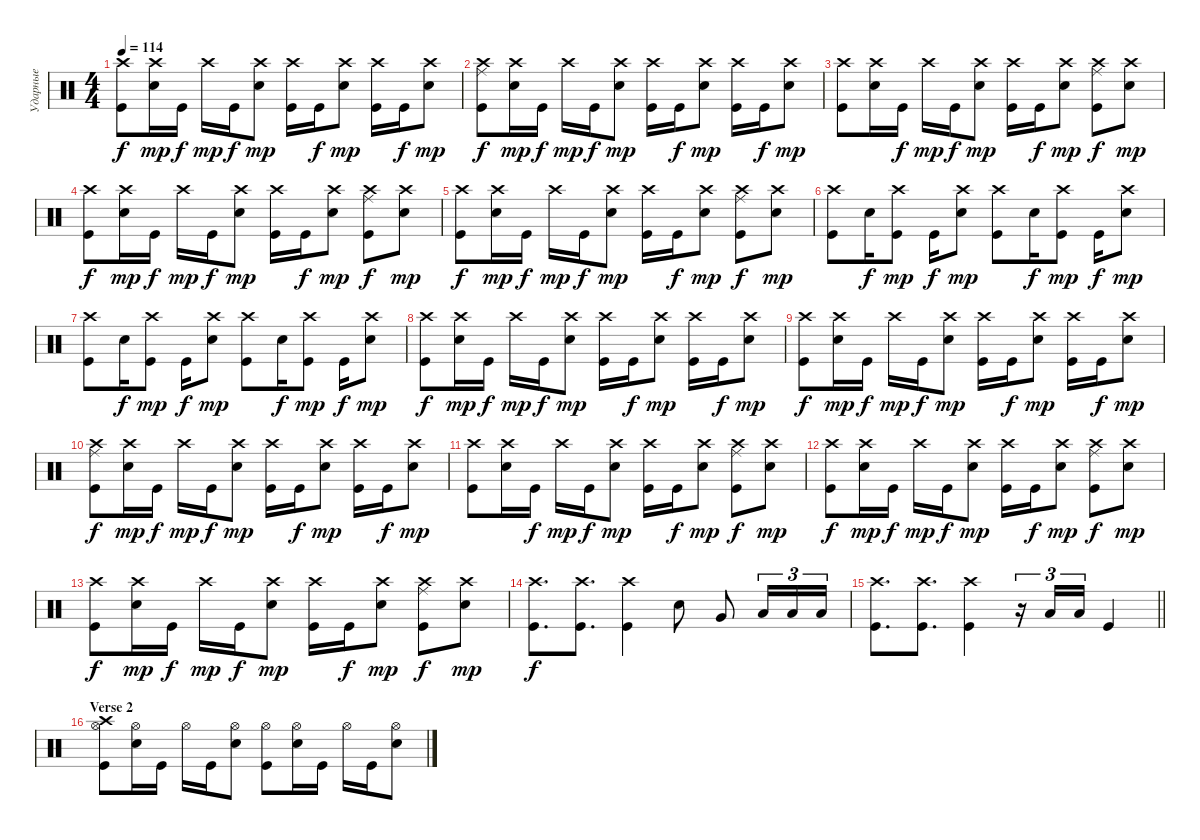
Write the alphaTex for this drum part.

\track ("Ударные" "Ударные") {instrument percussion}
\staff {score}
\articulation defaults
\ts (4 4)
\tempo 114
\clef neutral
\ks aminor
("Crash high (hit)" "Kick (hit)").8{dy f} ("Crash high (hit)" "Snare (hit) 2").16{dy mp} "Kick (hit)".16{dy f} "Crash high (hit)".16{dy mp} "Kick (hit)".16{dy f} ("Crash high (hit)" "Snare (hit) 2").8{dy mp} ("Kick (hit)" "Crash high (hit)").16 "Kick (hit)".16{dy f} ("Crash high (hit)" "Snare (hit) 2").8{dy mp} ("Crash high (hit)" "Kick (hit)").16 "Kick (hit)".16{dy f} ("Crash high (hit)" "Snare (hit) 2").8{dy mp} |
("Crash high (hit)" "Ride (middle)" "Kick (hit)").8{dy f} ("Crash high (hit)" "Snare (hit) 2").16{dy mp} "Kick (hit)".16{dy f} "Crash high (hit)".16{dy mp} "Kick (hit)".16{dy f} ("Crash high (hit)" "Snare (hit) 2").8{dy mp} ("Kick (hit)" "Crash high (hit)").16 "Kick (hit)".16{dy f} ("Crash high (hit)" "Snare (hit) 2").8{dy mp} ("Kick (hit)" "Crash high (hit)").16 "Kick (hit)".16{dy f} ("Crash high (hit)" "Snare (hit) 2").8{dy mp} |
("Crash high (hit)" "Kick (hit)").8 ("Crash high (hit)" "Snare (hit) 2").16 "Kick (hit)".16{dy f} "Crash high (hit)".16{dy mp} "Kick (hit)".16{dy f} ("Crash high (hit)" "Snare (hit) 2").8{dy mp} ("Kick (hit)" "Crash high (hit)").16 "Kick (hit)".16{dy f} ("Crash high (hit)" "Snare (hit) 2").8{dy mp} ("Ride (middle)" "Crash high (hit)" "Kick (hit)").8{dy f} ("Crash high (hit)" "Snare (hit) 2").8{dy mp} |
("Crash high (hit)" "Kick (hit)").8{dy f} ("Crash high (hit)" "Snare (hit) 2").16{dy mp} "Kick (hit)".16{dy f} "Crash high (hit)".16{dy mp} "Kick (hit)".16{dy f} ("Crash high (hit)" "Snare (hit) 2").8{dy mp} ("Kick (hit)" "Crash high (hit)").16 "Kick (hit)".16{dy f} ("Crash high (hit)" "Snare (hit) 2").8{dy mp} ("Ride (middle)" "Crash high (hit)" "Kick (hit)").8{dy f} ("Crash high (hit)" "Snare (hit) 2").8{dy mp} |
("Crash high (hit)" "Kick (hit)").8{dy f} ("Crash high (hit)" "Snare (hit) 2").16{dy mp} "Kick (hit)".16{dy f} "Crash high (hit)".16{dy mp} "Kick (hit)".16{dy f} ("Crash high (hit)" "Snare (hit) 2").8{dy mp} ("Kick (hit)" "Crash high (hit)").16 "Kick (hit)".16{dy f} ("Crash high (hit)" "Snare (hit) 2").8{dy mp} ("Ride (middle)" "Crash high (hit)" "Kick (hit)").8{dy f} ("Crash high (hit)" "Snare (hit) 2").8{dy mp} |
("Crash high (hit)" "Kick (hit)").8 "Snare (hit) 2".16{dy f} ("Crash high (hit)" "Kick (hit)").8{dy mp} "Kick (hit)".16{dy f} ("Crash high (hit)" "Snare (hit) 2").8{dy mp} ("Crash high (hit)" "Kick (hit)").8 "Snare (hit) 2".16{dy f} ("Crash high (hit)" "Kick (hit)").8{dy mp} "Kick (hit)".16{dy f} ("Crash high (hit)" "Snare (hit) 2").8{dy mp} |
("Crash high (hit)" "Kick (hit)").8 "Snare (hit) 2".16{dy f} ("Crash high (hit)" "Kick (hit)").8{dy mp} "Kick (hit)".16{dy f} ("Crash high (hit)" "Snare (hit) 2").8{dy mp} ("Crash high (hit)" "Kick (hit)").8 "Snare (hit) 2".16{dy f} ("Crash high (hit)" "Kick (hit)").8{dy mp} "Kick (hit)".16{dy f} ("Crash high (hit)" "Snare (hit) 2").8{dy mp} |
("Crash high (hit)" "Kick (hit)").8{dy f} ("Crash high (hit)" "Snare (hit) 2").16{dy mp} "Kick (hit)".16{dy f} "Crash high (hit)".16{dy mp} "Kick (hit)".16{dy f} ("Crash high (hit)" "Snare (hit) 2").8{dy mp} ("Kick (hit)" "Crash high (hit)").16 "Kick (hit)".16{dy f} ("Crash high (hit)" "Snare (hit) 2").8{dy mp} ("Kick (hit)" "Crash high (hit)").16 "Kick (hit)".16{dy f} ("Crash high (hit)" "Snare (hit) 2").8{dy mp} |
("Crash high (hit)" "Kick (hit)").8{dy f} ("Crash high (hit)" "Snare (hit) 2").16{dy mp} "Kick (hit)".16{dy f} "Crash high (hit)".16{dy mp} "Kick (hit)".16{dy f} ("Crash high (hit)" "Snare (hit) 2").8{dy mp} ("Kick (hit)" "Crash high (hit)").16 "Kick (hit)".16{dy f} ("Crash high (hit)" "Snare (hit) 2").8{dy mp} ("Crash high (hit)" "Kick (hit)").16 "Kick (hit)".16{dy f} ("Crash high (hit)" "Snare (hit) 2").8{dy mp} |
("Crash high (hit)" "Ride (middle)" "Kick (hit)").8{dy f} ("Crash high (hit)" "Snare (hit) 2").16{dy mp} "Kick (hit)".16{dy f} "Crash high (hit)".16{dy mp} "Kick (hit)".16{dy f} ("Crash high (hit)" "Snare (hit) 2").8{dy mp} ("Kick (hit)" "Crash high (hit)").16 "Kick (hit)".16{dy f} ("Crash high (hit)" "Snare (hit) 2").8{dy mp} ("Kick (hit)" "Crash high (hit)").16 "Kick (hit)".16{dy f} ("Crash high (hit)" "Snare (hit) 2").8{dy mp} |
("Crash high (hit)" "Kick (hit)").8 ("Crash high (hit)" "Snare (hit) 2").16 "Kick (hit)".16{dy f} "Crash high (hit)".16{dy mp} "Kick (hit)".16{dy f} ("Crash high (hit)" "Snare (hit) 2").8{dy mp} ("Kick (hit)" "Crash high (hit)").16 "Kick (hit)".16{dy f} ("Crash high (hit)" "Snare (hit) 2").8{dy mp} ("Ride (middle)" "Crash high (hit)" "Kick (hit)").8{dy f} ("Crash high (hit)" "Snare (hit) 2").8{dy mp} |
("Crash high (hit)" "Kick (hit)").8{dy f} ("Crash high (hit)" "Snare (hit) 2").16{dy mp} "Kick (hit)".16{dy f} "Crash high (hit)".16{dy mp} "Kick (hit)".16{dy f} ("Crash high (hit)" "Snare (hit) 2").8{dy mp} ("Kick (hit)" "Crash high (hit)").16 "Kick (hit)".16{dy f} ("Crash high (hit)" "Snare (hit) 2").8{dy mp} ("Ride (middle)" "Crash high (hit)" "Kick (hit)").8{dy f} ("Crash high (hit)" "Snare (hit) 2").8{dy mp} |
("Crash high (hit)" "Kick (hit)").8{dy f} ("Crash high (hit)" "Snare (hit) 2").16{dy mp} "Kick (hit)".16{dy f} "Crash high (hit)".16{dy mp} "Kick (hit)".16{dy f} ("Crash high (hit)" "Snare (hit) 2").8{dy mp} ("Kick (hit)" "Crash high (hit)").16 "Kick (hit)".16{dy f} ("Crash high (hit)" "Snare (hit) 2").8{dy mp} ("Ride (middle)" "Crash high (hit)" "Kick (hit)").8{dy f} ("Crash high (hit)" "Snare (hit) 2").8{dy mp} |
("Crash high (hit)" "Kick (hit)").8{d dy f} ("Crash high (hit)" "Kick (hit)").8{d} ("Crash high (hit)" "Kick (hit)").4 "Snare (hit) 2".8 "Very Low Tom (hit)".8 "Low Floor Tom (hit)".16{tu (3 2)} "Low Floor Tom (hit)".16{tu (3 2)} "Low Floor Tom (hit)".16{tu (3 2)} |
\barLineRight lightlight
("Crash high (hit)" "Kick (hit)").8{d} ("Crash high (hit)" "Kick (hit)").8{d} ("Crash high (hit)" "Kick (hit)").4 r.16{tu (3 2)} "Low Floor Tom (hit)".16{tu (3 2)} "Low Floor Tom (hit)".16{tu (3 2)} "Kick (hit)".4 |
\section ("" "Verse 2")
("Crash high (hit)" "Hi-Hat (open)" "Kick (hit)").8 ("Hi-Hat (open)" "Snare (hit) 2").16 "Kick (hit)".16 "Hi-Hat (open)".16 "Kick (hit)".16 ("Hi-Hat (open)" "Snare (hit) 2").8 ("Kick (hit)" "Hi-Hat (open)").8 ("Hi-Hat (open)" "Snare (hit) 2").16 "Kick (hit)".16 "Hi-Hat (open)".16 "Kick (hit)".16 ("Hi-Hat (open)" "Snare (hit) 2").8
